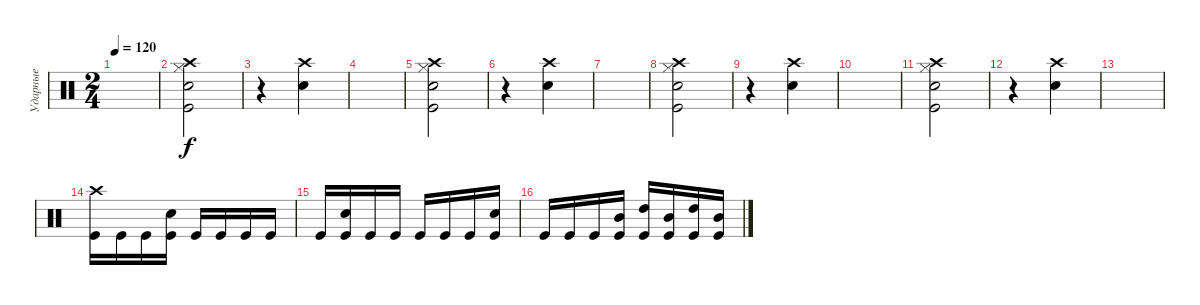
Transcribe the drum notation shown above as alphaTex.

\track ("Ударные" "Ударные") {instrument percussion}
\staff {score}
\articulation defaults
\ts (2 4)
\tempo 120
\clef neutral
\ks c
|
("Crash high (hit)" "Hi-Hat (closed)" "Electric Snare (hit)" "Kick (hit)").2 |
r.4 ("Electric Snare (hit)" "Crash high (hit)").4 |
|
("Crash high (hit)" "Hi-Hat (closed)" "Electric Snare (hit)" "Kick (hit)").2 |
r.4 ("Electric Snare (hit)" "Crash high (hit)").4 |
|
("Crash high (hit)" "Hi-Hat (closed)" "Electric Snare (hit)" "Kick (hit)").2 |
r.4 ("Electric Snare (hit)" "Crash high (hit)").4 |
|
("Crash high (hit)" "Hi-Hat (closed)" "Electric Snare (hit)" "Kick (hit)").2 |
r.4 ("Electric Snare (hit)" "Crash high (hit)").4 |
|
("Crash high (hit)" "Kick (hit)").16 "Kick (hit)".16 "Kick (hit)".16 ("Electric Snare (hit)" "Kick (hit)").16 "Kick (hit)".16 "Kick (hit)".16 "Kick (hit)".16 "Kick (hit)".16 |
"Kick (hit)".16 ("Electric Snare (hit)" "Kick (hit)").16 "Kick (hit)".16 "Kick (hit)".16 "Kick (hit)".16 "Kick (hit)".16 "Kick (hit)".16 ("Electric Snare (hit)" "Kick (hit)").16 |
"Kick (hit)".16 "Kick (hit)".16 "Kick (hit)".16 ("Mid Tom (hit)" "Kick (hit)").16 ("High Tom (hit)" "Kick (hit)").16 ("Mid Tom (hit)" "Kick (hit)").16 ("High Tom (hit)" "Kick (hit)").16 ("Mid Tom (hit)" "Kick (hit)").16
